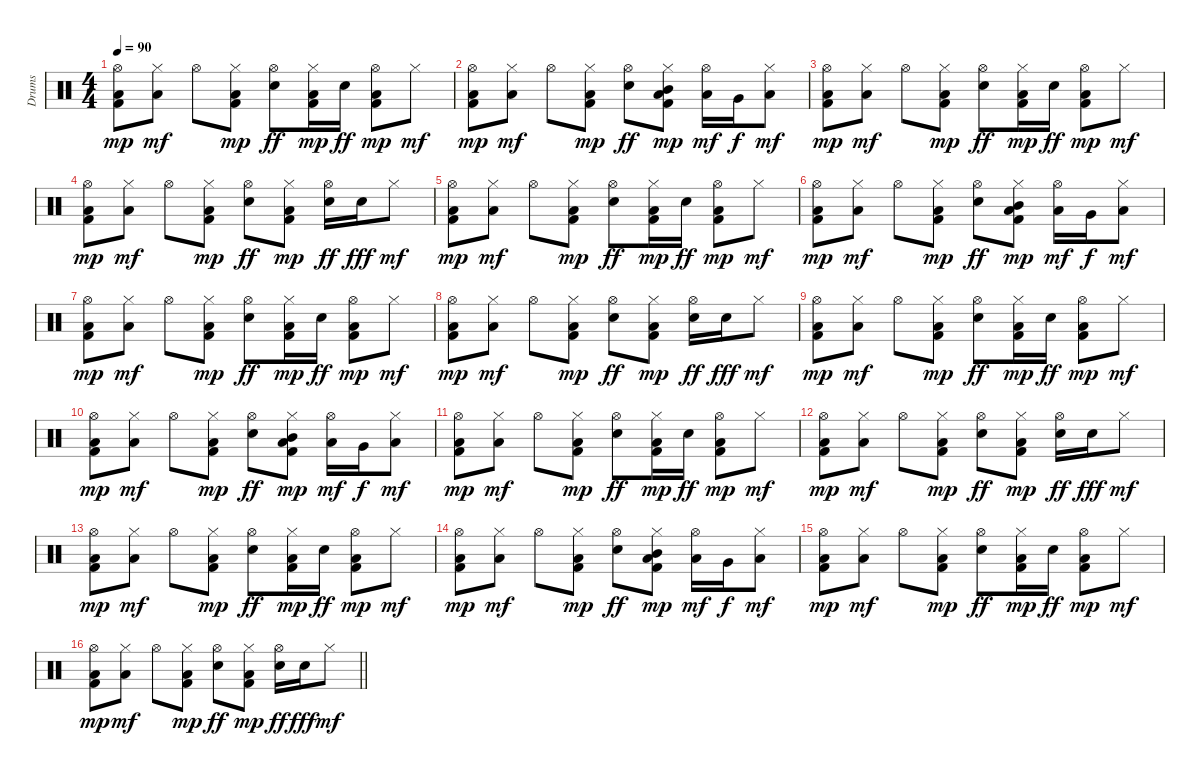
\track ("Drums" "Drums") {instrument percussion}
\staff {score}
\articulation defaults
\ts (4 4)
\section ("" "")
\tempo 90
\clef neutral
\ks c
("Hi-Hat (open)" "Kick (hit) 2" "Low Floor Tom (hit)").8{dy mp} ("Hi-Hat (closed)" "Low Tom (hit)").8{dy mf} "Hi-Hat (open)".8 ("Hi-Hat (closed)" "Kick (hit) 2" "Low Floor Tom (hit)").8{dy mp} ("Hi-Hat (open)" "Snare (hit) 2").8{dy ff} ("Hi-Hat (closed)" "Kick (hit) 2" "Low Floor Tom (hit)").16{dy mp} "Snare (hit) 2".16{dy ff} ("Hi-Hat (open)" "Kick (hit) 2" "Low Floor Tom (hit)").8{dy mp} "Hi-Hat (closed)".8{dy mf} |
("Hi-Hat (open)" "Kick (hit) 2" "Low Floor Tom (hit)").8{dy mp} ("Hi-Hat (closed)" "Low Tom (hit)").8{dy mf} "Hi-Hat (open)".8 ("Hi-Hat (closed)" "Kick (hit) 2" "Low Floor Tom (hit)").8{dy mp} ("Hi-Hat (open)" "Snare (hit) 2").8{dy ff} ("Hi-Hat (closed)" "Mid Tom (hit)" "Kick (hit) 2" "Low Floor Tom (hit)").8{dy mp} ("Hi-Hat (open)" "Low Tom (hit)").16{dy mf} "Very Low Tom (hit)".16{dy f} ("Hi-Hat (closed)" "Low Floor Tom (hit)").8{dy mf} |
("Hi-Hat (open)" "Kick (hit) 2" "Low Floor Tom (hit)").8{dy mp} ("Hi-Hat (closed)" "Low Tom (hit)").8{dy mf} "Hi-Hat (open)".8 ("Hi-Hat (closed)" "Kick (hit) 2" "Low Floor Tom (hit)").8{dy mp} ("Hi-Hat (open)" "Snare (hit) 2").8{dy ff} ("Hi-Hat (closed)" "Kick (hit) 2" "Low Floor Tom (hit)").16{dy mp} "Snare (hit) 2".16{dy ff} ("Hi-Hat (open)" "Kick (hit) 2" "Low Floor Tom (hit)").8{dy mp} "Hi-Hat (closed)".8{dy mf} |
("Hi-Hat (open)" "Kick (hit) 2" "Low Floor Tom (hit)").8{dy mp} ("Hi-Hat (closed)" "Low Tom (hit)").8{dy mf} "Hi-Hat (open)".8 ("Hi-Hat (closed)" "Kick (hit) 2" "Low Floor Tom (hit)").8{dy mp} ("Hi-Hat (open)" "Snare (hit) 2").8{dy ff} ("Hi-Hat (closed)" "Kick (hit) 2" "Low Floor Tom (hit)").8{dy mp} ("Hi-Hat (open)" "Snare (hit) 2").16{dy ff} "Snare (hit) 2".16{dy fff} "Hi-Hat (closed)".8{dy mf} |
("Hi-Hat (open)" "Kick (hit) 2" "Low Floor Tom (hit)").8{dy mp} ("Hi-Hat (closed)" "Low Tom (hit)").8{dy mf} "Hi-Hat (open)".8 ("Hi-Hat (closed)" "Kick (hit) 2" "Low Floor Tom (hit)").8{dy mp} ("Hi-Hat (open)" "Snare (hit) 2").8{dy ff} ("Hi-Hat (closed)" "Kick (hit) 2" "Low Floor Tom (hit)").16{dy mp} "Snare (hit) 2".16{dy ff} ("Hi-Hat (open)" "Kick (hit) 2" "Low Floor Tom (hit)").8{dy mp} "Hi-Hat (closed)".8{dy mf} |
("Hi-Hat (open)" "Kick (hit) 2" "Low Floor Tom (hit)").8{dy mp} ("Hi-Hat (closed)" "Low Tom (hit)").8{dy mf} "Hi-Hat (open)".8 ("Hi-Hat (closed)" "Kick (hit) 2" "Low Floor Tom (hit)").8{dy mp} ("Hi-Hat (open)" "Snare (hit) 2").8{dy ff} ("Hi-Hat (closed)" "Mid Tom (hit)" "Kick (hit) 2" "Low Floor Tom (hit)").8{dy mp} ("Hi-Hat (open)" "Low Tom (hit)").16{dy mf} "Very Low Tom (hit)".16{dy f} ("Hi-Hat (closed)" "Low Floor Tom (hit)").8{dy mf} |
("Hi-Hat (open)" "Kick (hit) 2" "Low Floor Tom (hit)").8{dy mp} ("Hi-Hat (closed)" "Low Tom (hit)").8{dy mf} "Hi-Hat (open)".8 ("Hi-Hat (closed)" "Kick (hit) 2" "Low Floor Tom (hit)").8{dy mp} ("Hi-Hat (open)" "Snare (hit) 2").8{dy ff} ("Hi-Hat (closed)" "Kick (hit) 2" "Low Floor Tom (hit)").16{dy mp} "Snare (hit) 2".16{dy ff} ("Hi-Hat (open)" "Kick (hit) 2" "Low Floor Tom (hit)").8{dy mp} "Hi-Hat (closed)".8{dy mf} |
("Hi-Hat (open)" "Kick (hit) 2" "Low Floor Tom (hit)").8{dy mp} ("Hi-Hat (closed)" "Low Tom (hit)").8{dy mf} "Hi-Hat (open)".8 ("Hi-Hat (closed)" "Kick (hit) 2" "Low Floor Tom (hit)").8{dy mp} ("Hi-Hat (open)" "Snare (hit) 2").8{dy ff} ("Hi-Hat (closed)" "Kick (hit) 2" "Low Floor Tom (hit)").8{dy mp} ("Hi-Hat (open)" "Snare (hit) 2").16{dy ff} "Snare (hit) 2".16{dy fff} "Hi-Hat (closed)".8{dy mf} |
("Hi-Hat (open)" "Kick (hit) 2" "Low Floor Tom (hit)").8{dy mp} ("Hi-Hat (closed)" "Low Tom (hit)").8{dy mf} "Hi-Hat (open)".8 ("Hi-Hat (closed)" "Kick (hit) 2" "Low Floor Tom (hit)").8{dy mp} ("Hi-Hat (open)" "Snare (hit) 2").8{dy ff} ("Hi-Hat (closed)" "Kick (hit) 2" "Low Floor Tom (hit)").16{dy mp} "Snare (hit) 2".16{dy ff} ("Hi-Hat (open)" "Kick (hit) 2" "Low Floor Tom (hit)").8{dy mp} "Hi-Hat (closed)".8{dy mf} |
("Hi-Hat (open)" "Kick (hit) 2" "Low Floor Tom (hit)").8{dy mp} ("Hi-Hat (closed)" "Low Tom (hit)").8{dy mf} "Hi-Hat (open)".8 ("Hi-Hat (closed)" "Kick (hit) 2" "Low Floor Tom (hit)").8{dy mp} ("Hi-Hat (open)" "Snare (hit) 2").8{dy ff} ("Hi-Hat (closed)" "Mid Tom (hit)" "Kick (hit) 2" "Low Floor Tom (hit)").8{dy mp} ("Hi-Hat (open)" "Low Tom (hit)").16{dy mf} "Very Low Tom (hit)".16{dy f} ("Hi-Hat (closed)" "Low Floor Tom (hit)").8{dy mf} |
("Hi-Hat (open)" "Kick (hit) 2" "Low Floor Tom (hit)").8{dy mp} ("Hi-Hat (closed)" "Low Tom (hit)").8{dy mf} "Hi-Hat (open)".8 ("Hi-Hat (closed)" "Kick (hit) 2" "Low Floor Tom (hit)").8{dy mp} ("Hi-Hat (open)" "Snare (hit) 2").8{dy ff} ("Hi-Hat (closed)" "Kick (hit) 2" "Low Floor Tom (hit)").16{dy mp} "Snare (hit) 2".16{dy ff} ("Hi-Hat (open)" "Kick (hit) 2" "Low Floor Tom (hit)").8{dy mp} "Hi-Hat (closed)".8{dy mf} |
("Hi-Hat (open)" "Kick (hit) 2" "Low Floor Tom (hit)").8{dy mp} ("Hi-Hat (closed)" "Low Tom (hit)").8{dy mf} "Hi-Hat (open)".8 ("Hi-Hat (closed)" "Kick (hit) 2" "Low Floor Tom (hit)").8{dy mp} ("Hi-Hat (open)" "Snare (hit) 2").8{dy ff} ("Hi-Hat (closed)" "Kick (hit) 2" "Low Floor Tom (hit)").8{dy mp} ("Hi-Hat (open)" "Snare (hit) 2").16{dy ff} "Snare (hit) 2".16{dy fff} "Hi-Hat (closed)".8{dy mf} |
("Hi-Hat (open)" "Kick (hit) 2" "Low Floor Tom (hit)").8{dy mp} ("Hi-Hat (closed)" "Low Tom (hit)").8{dy mf} "Hi-Hat (open)".8 ("Hi-Hat (closed)" "Kick (hit) 2" "Low Floor Tom (hit)").8{dy mp} ("Hi-Hat (open)" "Snare (hit) 2").8{dy ff} ("Hi-Hat (closed)" "Kick (hit) 2" "Low Floor Tom (hit)").16{dy mp} "Snare (hit) 2".16{dy ff} ("Hi-Hat (open)" "Kick (hit) 2" "Low Floor Tom (hit)").8{dy mp} "Hi-Hat (closed)".8{dy mf} |
("Hi-Hat (open)" "Kick (hit) 2" "Low Floor Tom (hit)").8{dy mp} ("Hi-Hat (closed)" "Low Tom (hit)").8{dy mf} "Hi-Hat (open)".8 ("Hi-Hat (closed)" "Kick (hit) 2" "Low Floor Tom (hit)").8{dy mp} ("Hi-Hat (open)" "Snare (hit) 2").8{dy ff} ("Hi-Hat (closed)" "Mid Tom (hit)" "Kick (hit) 2" "Low Floor Tom (hit)").8{dy mp} ("Hi-Hat (open)" "Low Tom (hit)").16{dy mf} "Very Low Tom (hit)".16{dy f} ("Hi-Hat (closed)" "Low Floor Tom (hit)").8{dy mf} |
("Hi-Hat (open)" "Kick (hit) 2" "Low Floor Tom (hit)").8{dy mp} ("Hi-Hat (closed)" "Low Tom (hit)").8{dy mf} "Hi-Hat (open)".8 ("Hi-Hat (closed)" "Kick (hit) 2" "Low Floor Tom (hit)").8{dy mp} ("Hi-Hat (open)" "Snare (hit) 2").8{dy ff} ("Hi-Hat (closed)" "Kick (hit) 2" "Low Floor Tom (hit)").16{dy mp} "Snare (hit) 2".16{dy ff} ("Hi-Hat (open)" "Kick (hit) 2" "Low Floor Tom (hit)").8{dy mp} "Hi-Hat (closed)".8{dy mf} |
\barLineRight lightlight
("Hi-Hat (open)" "Kick (hit) 2" "Low Floor Tom (hit)").8{dy mp} ("Hi-Hat (closed)" "Low Tom (hit)").8{dy mf} "Hi-Hat (open)".8 ("Hi-Hat (closed)" "Kick (hit) 2" "Low Floor Tom (hit)").8{dy mp} ("Hi-Hat (open)" "Snare (hit) 2").8{dy ff} ("Hi-Hat (closed)" "Kick (hit) 2" "Low Floor Tom (hit)").8{dy mp} ("Hi-Hat (open)" "Snare (hit) 2").16{dy ff} "Snare (hit) 2".16{dy fff} "Hi-Hat (closed)".8{dy mf}
